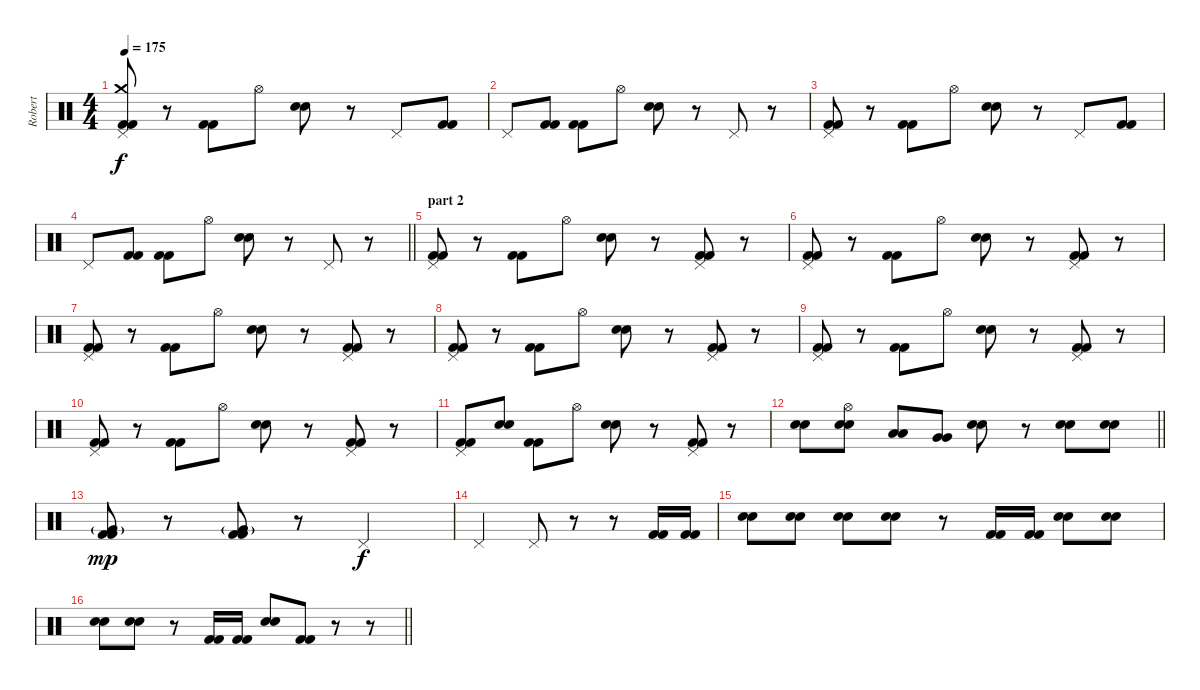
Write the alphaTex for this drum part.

\track ("Robert" "Robert") {instrument percussion}
\staff {score}
\articulation defaults
\ts (4 4)
\tempo 175
\clef neutral
\ks c
("Pedal Hi-Hat (hit)" "Crash medium (hit)" "Kick (hit) 2" "Kick (hit) 2").8{dy f} r.8 ("Kick (hit) 2" "Kick (hit) 2").8 "Hi-Hat (open)".8 ("Electric Snare (hit)" "Electric Snare (hit)").8 r.8 "Pedal Hi-Hat (hit)".8 ("Kick (hit) 2" "Kick (hit) 2").8 |
"Pedal Hi-Hat (hit)".8 ("Kick (hit) 2" "Kick (hit) 2").8 ("Kick (hit) 2" "Kick (hit) 2").8 "Hi-Hat (open)".8 ("Electric Snare (hit)" "Electric Snare (hit)").8 r.8 "Pedal Hi-Hat (hit)".8 r.8 |
("Pedal Hi-Hat (hit)" "Kick (hit) 2" "Kick (hit) 2").8 r.8 ("Kick (hit) 2" "Kick (hit) 2").8 "Hi-Hat (open)".8 ("Electric Snare (hit)" "Electric Snare (hit)").8 r.8 "Pedal Hi-Hat (hit)".8 ("Kick (hit) 2" "Kick (hit) 2").8 |
\barLineRight lightlight "Pedal Hi-Hat (hit)".8
("Kick (hit) 2" "Kick (hit) 2").8 ("Kick (hit) 2" "Kick (hit) 2").8 "Hi-Hat (open)".8 ("Electric Snare (hit)" "Electric Snare (hit)").8 r.8 "Pedal Hi-Hat (hit)".8 r.8 |
\section ("" "part 2")
("Pedal Hi-Hat (hit)" "Kick (hit) 2" "Kick (hit) 2").8 r.8 ("Kick (hit) 2" "Kick (hit) 2").8 "Hi-Hat (open)".8 ("Electric Snare (hit)" "Electric Snare (hit)").8 r.8 ("Pedal Hi-Hat (hit)" "Kick (hit) 2" "Kick (hit) 2").8 r.8 |
("Pedal Hi-Hat (hit)" "Kick (hit) 2" "Kick (hit) 2").8 r.8 ("Kick (hit) 2" "Kick (hit) 2").8 "Hi-Hat (open)".8 ("Electric Snare (hit)" "Electric Snare (hit)").8 r.8 ("Pedal Hi-Hat (hit)" "Kick (hit) 2" "Kick (hit) 2").8 r.8 |
("Pedal Hi-Hat (hit)" "Kick (hit) 2" "Kick (hit) 2").8 r.8 ("Kick (hit) 2" "Kick (hit) 2").8 "Hi-Hat (open)".8 ("Electric Snare (hit)" "Electric Snare (hit)").8 r.8 ("Pedal Hi-Hat (hit)" "Kick (hit) 2" "Kick (hit) 2").8 r.8 |
("Pedal Hi-Hat (hit)" "Kick (hit) 2" "Kick (hit) 2").8 r.8 ("Kick (hit) 2" "Kick (hit) 2").8 "Hi-Hat (open)".8 ("Electric Snare (hit)" "Electric Snare (hit)").8 r.8 ("Pedal Hi-Hat (hit)" "Kick (hit) 2" "Kick (hit) 2").8 r.8 |
("Pedal Hi-Hat (hit)" "Kick (hit) 2" "Kick (hit) 2").8 r.8 ("Kick (hit) 2" "Kick (hit) 2").8 "Hi-Hat (open)".8 ("Electric Snare (hit)" "Electric Snare (hit)").8 r.8 ("Pedal Hi-Hat (hit)" "Kick (hit) 2" "Kick (hit) 2").8 r.8 |
("Pedal Hi-Hat (hit)" "Kick (hit) 2" "Kick (hit) 2").8 r.8 ("Kick (hit) 2" "Kick (hit) 2").8 "Hi-Hat (open)".8 ("Electric Snare (hit)" "Electric Snare (hit)").8 r.8 ("Pedal Hi-Hat (hit)" "Kick (hit) 2" "Kick (hit) 2").8 r.8 |
("Pedal Hi-Hat (hit)" "Kick (hit) 2" "Kick (hit) 2").8 ("Electric Snare (hit)" "Electric Snare (hit)").8 ("Kick (hit) 2" "Kick (hit) 2").8 "Hi-Hat (open)".8 ("Electric Snare (hit)" "Electric Snare (hit)").8 r.8 ("Pedal Hi-Hat (hit)" "Kick (hit) 2" "Kick (hit) 2").8 r.8 |
\barLineRight lightlight
("Electric Snare (hit)" "Electric Snare (hit)").8 ("Hi-Hat (open)" "Electric Snare (hit)" "Electric Snare (hit)").8 ("Low Tom (hit)" "Low Tom (hit)").8 ("Very Low Tom (hit)" "Very Low Tom (hit)").8 ("Electric Snare (hit)" "Electric Snare (hit)").8 r.8 ("Electric Snare (hit)" "Electric Snare (hit)").8 ("Electric Snare (hit)" "Electric Snare (hit)").8 |
("Very Low Tom (hit)"{g} "Kick (hit) 2" "Kick (hit) 2").8{dy mp} r.8 ("Very Low Tom (hit)"{g} "Kick (hit) 2" "Kick (hit) 2").8 r.8 "Pedal Hi-Hat (hit)".2{dy f} |
"Pedal Hi-Hat (hit)".2 "Pedal Hi-Hat (hit)".8 r.8 r.8 ("Kick (hit) 2" "Kick (hit) 2").16 ("Kick (hit) 2" "Kick (hit) 2").16 |
("Electric Snare (hit)" "Electric Snare (hit)").8 ("Electric Snare (hit)" "Electric Snare (hit)").8 ("Electric Snare (hit)" "Electric Snare (hit)").8 ("Electric Snare (hit)" "Electric Snare (hit)").8 r.8 ("Kick (hit) 2" "Kick (hit) 2").16 ("Kick (hit) 2" "Kick (hit) 2").16 ("Electric Snare (hit)" "Electric Snare (hit)").8 ("Electric Snare (hit)" "Electric Snare (hit)").8 |
\barLineRight lightlight
("Electric Snare (hit)" "Electric Snare (hit)").8 ("Electric Snare (hit)" "Electric Snare (hit)").8 r.8 ("Kick (hit) 2" "Kick (hit) 2").16 ("Kick (hit) 2" "Kick (hit) 2").16 ("Electric Snare (hit)" "Electric Snare (hit)").8 ("Kick (hit) 2" "Kick (hit) 2").8 r.8 r.8
